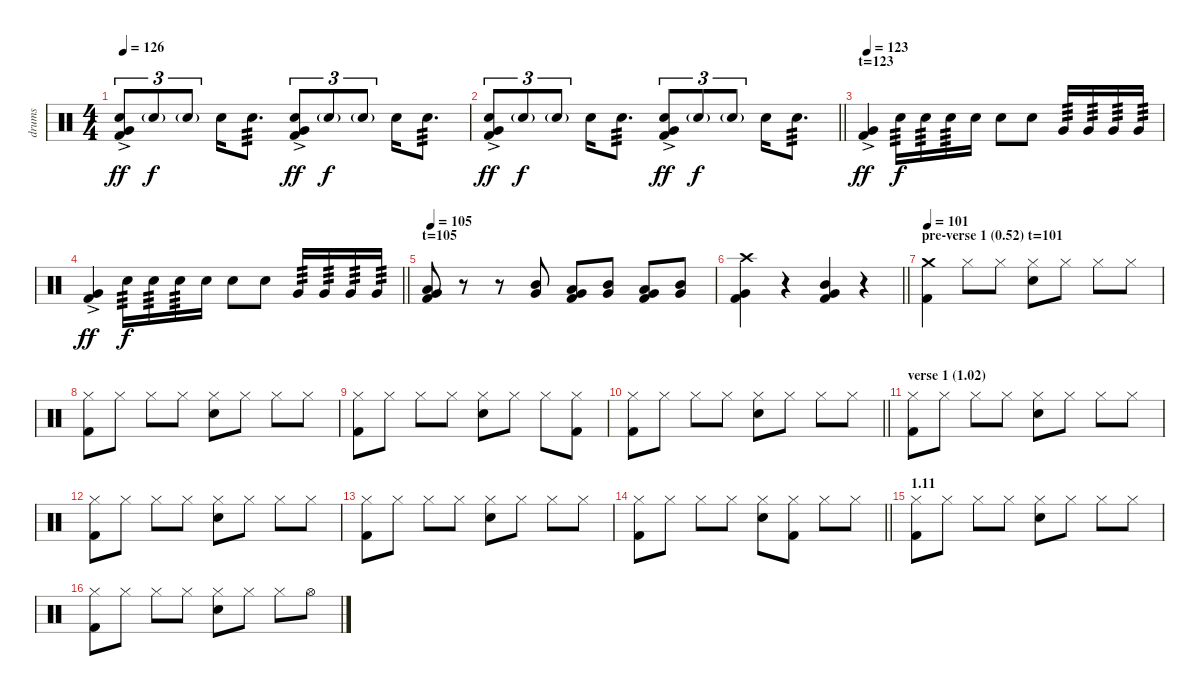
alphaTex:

\track ("drums" "drums") {instrument percussion}
\staff {score}
\articulation defaults
\ts (4 4)
\tempo 126
\clef neutral
\ks c
("Very Low Tom (hit)"{ac} "Electric Snare (hit)" "Kick (hit) 2").8{tu (3 2) dy ff} "Electric Snare (hit)"{g}.8{tu (3 2) dy f} "Electric Snare (hit)"{g}.8{tu (3 2)} "Electric Snare (hit)".16 "Electric Snare (hit)".8{d tp 3} ("Very Low Tom (hit)"{ac} "Electric Snare (hit)" "Kick (hit) 2").8{tu (3 2) dy ff} "Electric Snare (hit)"{g}.8{tu (3 2) dy f} "Electric Snare (hit)"{g}.8{tu (3 2)} "Electric Snare (hit)".16 "Electric Snare (hit)".8{d tp 3} |
\barLineRight lightlight
("Very Low Tom (hit)"{ac} "Electric Snare (hit)" "Kick (hit) 2").8{tu (3 2) dy ff} "Electric Snare (hit)"{g}.8{tu (3 2) dy f} "Electric Snare (hit)"{g}.8{tu (3 2)} "Electric Snare (hit)".16 "Electric Snare (hit)".8{d tp 3} ("Very Low Tom (hit)"{ac} "Electric Snare (hit)" "Kick (hit) 2").8{tu (3 2) dy ff} "Electric Snare (hit)"{g}.8{tu (3 2) dy f} "Electric Snare (hit)"{g}.8{tu (3 2)} "Electric Snare (hit)".16 "Electric Snare (hit)".8{d tp 3} |
\section ("" "t=123")
\tempo 123
("Very Low Tom (hit)"{ac} "Kick (hit) 2").4{dy ff} "Electric Snare (hit)".16{tp 3 dy f} "Electric Snare (hit)".16{tp 3} "Electric Snare (hit)".16{tp 3} "Electric Snare (hit)".16 "Electric Snare (hit)".8 "Electric Snare (hit)".8 "Very Low Tom (hit)".16{tp 3} "Very Low Tom (hit)".16{tp 3} "Very Low Tom (hit)".16{tp 3} "Very Low Tom (hit)".16{tp 3} |
\barLineRight lightlight
("Very Low Tom (hit)"{ac} "Kick (hit) 2").4{dy ff} "Electric Snare (hit)".16{tp 3 dy f} "Electric Snare (hit)".16{tp 3} "Electric Snare (hit)".16{tp 3} "Electric Snare (hit)".16 "Electric Snare (hit)".8 "Electric Snare (hit)".8 "Very Low Tom (hit)".16{tp 3} "Very Low Tom (hit)".16{tp 3} "Very Low Tom (hit)".16{tp 3} "Very Low Tom (hit)".16{tp 3} |
\section ("" "t=105")
\tempo 105
("Low Tom (hit)" "Very Low Tom (hit)" "Kick (hit) 2").8 r.8 r.8 ("Mid Tom (hit)" "Very Low Tom (hit)").8 ("Low Tom (hit)" "Very Low Tom (hit)" "Kick (hit) 2").8 ("Mid Tom (hit)" "Very Low Tom (hit)").8 ("Low Tom (hit)" "Very Low Tom (hit)" "Kick (hit) 2").8 ("Mid Tom (hit)" "Very Low Tom (hit)").8 |
\barLineRight lightlight
("Crash high (hit)" "Very Low Tom (hit)" "Kick (hit) 2").4 r.4 ("Mid Tom (hit)" "Very Low Tom (hit)" "Kick (hit) 2").4 r.4 |
\section ("" "pre-verse 1 (0.52) t=101")
\tempo 101
("Crash medium (hit)" "Kick (hit) 2").4 "Hi-Hat (closed)".8 "Hi-Hat (closed)".8 ("Hi-Hat (closed)" "Electric Snare (hit)").8 "Hi-Hat (closed)".8 "Hi-Hat (closed)".8 "Hi-Hat (closed)".8 |
("Hi-Hat (closed)" "Kick (hit) 2").8 "Hi-Hat (closed)".8 "Hi-Hat (closed)".8 "Hi-Hat (closed)".8 ("Hi-Hat (closed)" "Electric Snare (hit)").8 "Hi-Hat (closed)".8 "Hi-Hat (closed)".8 "Hi-Hat (closed)".8 |
("Hi-Hat (closed)" "Kick (hit) 2").8 "Hi-Hat (closed)".8 "Hi-Hat (closed)".8 "Hi-Hat (closed)".8 ("Hi-Hat (closed)" "Electric Snare (hit)").8 "Hi-Hat (closed)".8 "Hi-Hat (closed)".8 ("Hi-Hat (closed)" "Kick (hit) 2").8 |
\barLineRight lightlight
("Hi-Hat (closed)" "Kick (hit) 2").8 "Hi-Hat (closed)".8 "Hi-Hat (closed)".8 "Hi-Hat (closed)".8 ("Hi-Hat (closed)" "Electric Snare (hit)").8 "Hi-Hat (closed)".8 "Hi-Hat (closed)".8 "Hi-Hat (closed)".8 |
\section ("" "verse 1 (1.02)")
("Hi-Hat (closed)" "Kick (hit) 2").8 "Hi-Hat (closed)".8 "Hi-Hat (closed)".8 "Hi-Hat (closed)".8 ("Hi-Hat (closed)" "Electric Snare (hit)").8 "Hi-Hat (closed)".8 "Hi-Hat (closed)".8 "Hi-Hat (closed)".8 |
("Hi-Hat (closed)" "Kick (hit) 2").8 "Hi-Hat (closed)".8 "Hi-Hat (closed)".8 "Hi-Hat (closed)".8 ("Hi-Hat (closed)" "Electric Snare (hit)").8 "Hi-Hat (closed)".8 "Hi-Hat (closed)".8 "Hi-Hat (closed)".8 |
("Hi-Hat (closed)" "Kick (hit) 2").8 "Hi-Hat (closed)".8 "Hi-Hat (closed)".8 "Hi-Hat (closed)".8 ("Hi-Hat (closed)" "Electric Snare (hit)").8 "Hi-Hat (closed)".8 "Hi-Hat (closed)".8 "Hi-Hat (closed)".8 |
\barLineRight lightlight
("Hi-Hat (closed)" "Kick (hit) 2").8 "Hi-Hat (closed)".8 "Hi-Hat (closed)".8 "Hi-Hat (closed)".8 ("Hi-Hat (closed)" "Electric Snare (hit)").8 ("Hi-Hat (closed)" "Kick (hit) 2").8 "Hi-Hat (closed)".8 "Hi-Hat (closed)".8 |
\section ("" "1.11")
("Hi-Hat (closed)" "Kick (hit) 2").8 "Hi-Hat (closed)".8 "Hi-Hat (closed)".8 "Hi-Hat (closed)".8 ("Hi-Hat (closed)" "Electric Snare (hit)").8 "Hi-Hat (closed)".8 "Hi-Hat (closed)".8 "Hi-Hat (closed)".8 |
("Hi-Hat (closed)" "Kick (hit) 2").8 "Hi-Hat (closed)".8 "Hi-Hat (closed)".8 "Hi-Hat (closed)".8 ("Hi-Hat (closed)" "Electric Snare (hit)").8 "Hi-Hat (closed)".8 "Hi-Hat (closed)".8 "Hi-Hat (open)".8
